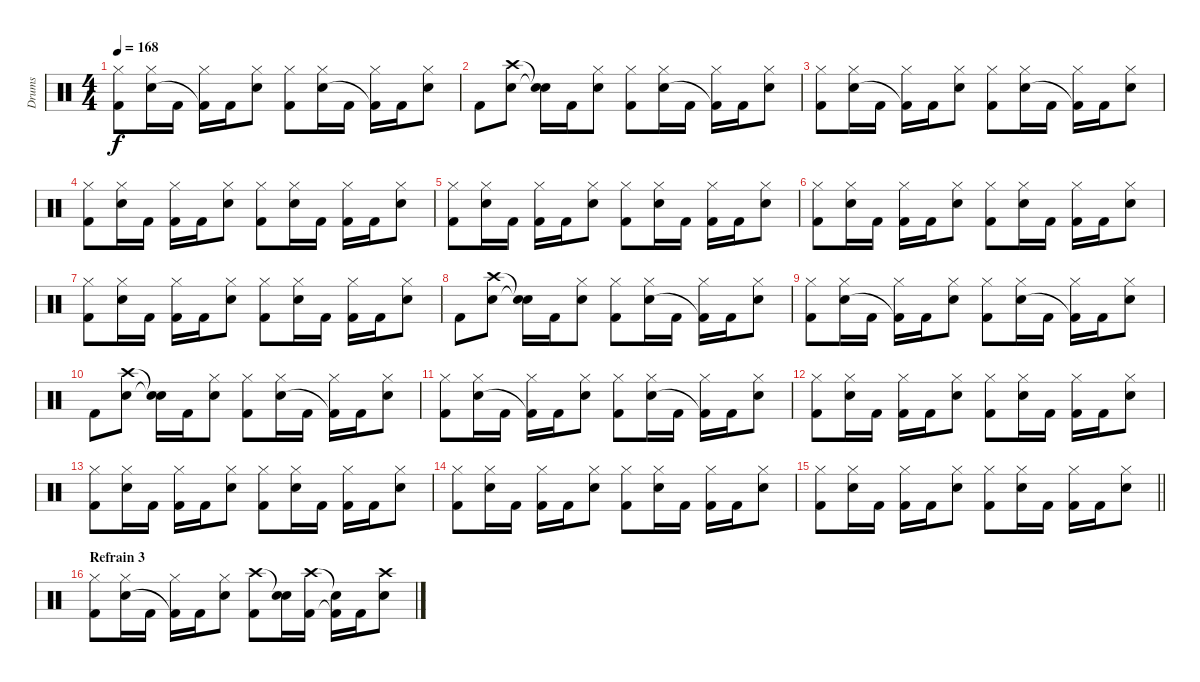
\track ("Drums" "Drums") {instrument percussion}
\staff {score}
\articulation defaults
\ts (4 4)
\tempo 168
\clef neutral
\ks c
("Hi-Hat (closed)" "Kick (hit) 2").8{dy f} ("Hi-Hat (closed)" "Electric Snare (hit)").16 "Kick (hit) 2".16 ("Hi-Hat (closed)" "Kick (hit) 2"{t}).16 "Kick (hit) 2".16 ("Hi-Hat (closed)" "Electric Snare (hit)").8 ("Hi-Hat (closed)" "Kick (hit) 2").8 ("Hi-Hat (closed)" "Electric Snare (hit)").16 "Kick (hit) 2".16 ("Hi-Hat (closed)" "Kick (hit) 2"{t}).16 "Kick (hit) 2".16 ("Hi-Hat (closed)" "Electric Snare (hit)").8 |
"Kick (hit) 2".8 ("Crash high (hit)" "Electric Snare (hit)").8 ("Snare (hit)"{t} "Snare (hit)"{t}).16 "Kick (hit) 2".16 ("Hi-Hat (closed)" "Electric Snare (hit)").8 ("Hi-Hat (closed)" "Kick (hit) 2").8 ("Hi-Hat (closed)" "Electric Snare (hit)").16 "Kick (hit) 2".16 ("Hi-Hat (closed)" "Kick (hit) 2"{t}).16 "Kick (hit) 2".16 ("Hi-Hat (closed)" "Electric Snare (hit)").8 |
("Hi-Hat (closed)" "Kick (hit) 2").8 ("Hi-Hat (closed)" "Electric Snare (hit)").16 "Kick (hit) 2".16 ("Hi-Hat (closed)" "Kick (hit) 2"{t}).16 "Kick (hit) 2".16 ("Hi-Hat (closed)" "Electric Snare (hit)").8 ("Hi-Hat (closed)" "Kick (hit) 2").8 ("Hi-Hat (closed)" "Electric Snare (hit)").16 "Kick (hit) 2".16 ("Hi-Hat (closed)" "Kick (hit) 2"{t}).16 "Kick (hit) 2".16 ("Hi-Hat (closed)" "Electric Snare (hit)").8 |
("Hi-Hat (closed)" "Kick (hit) 2").8 ("Hi-Hat (closed)" "Electric Snare (hit)").16 "Kick (hit) 2".16 ("Hi-Hat (closed)" "Kick (hit) 2").16 "Kick (hit) 2".16 ("Hi-Hat (closed)" "Electric Snare (hit)").8 ("Hi-Hat (closed)" "Kick (hit) 2").8 ("Hi-Hat (closed)" "Electric Snare (hit)").16 "Kick (hit) 2".16 ("Hi-Hat (closed)" "Kick (hit) 2").16 "Kick (hit) 2".16 ("Hi-Hat (closed)" "Electric Snare (hit)").8 |
("Hi-Hat (closed)" "Kick (hit) 2").8 ("Hi-Hat (closed)" "Electric Snare (hit)").16 "Kick (hit) 2".16 ("Hi-Hat (closed)" "Kick (hit) 2").16 "Kick (hit) 2".16 ("Hi-Hat (closed)" "Electric Snare (hit)").8 ("Hi-Hat (closed)" "Kick (hit) 2").8 ("Hi-Hat (closed)" "Electric Snare (hit)").16 "Kick (hit) 2".16 ("Hi-Hat (closed)" "Kick (hit) 2").16 "Kick (hit) 2".16 ("Hi-Hat (closed)" "Electric Snare (hit)").8 |
("Hi-Hat (closed)" "Kick (hit) 2").8 ("Hi-Hat (closed)" "Electric Snare (hit)").16 "Kick (hit) 2".16 ("Hi-Hat (closed)" "Kick (hit) 2").16 "Kick (hit) 2".16 ("Hi-Hat (closed)" "Electric Snare (hit)").8 ("Hi-Hat (closed)" "Kick (hit) 2").8 ("Hi-Hat (closed)" "Electric Snare (hit)").16 "Kick (hit) 2".16 ("Hi-Hat (closed)" "Kick (hit) 2").16 "Kick (hit) 2".16 ("Hi-Hat (closed)" "Electric Snare (hit)").8 |
("Hi-Hat (closed)" "Kick (hit) 2").8 ("Hi-Hat (closed)" "Electric Snare (hit)").16 "Kick (hit) 2".16 ("Hi-Hat (closed)" "Kick (hit) 2").16 "Kick (hit) 2".16 ("Hi-Hat (closed)" "Electric Snare (hit)").8 ("Hi-Hat (closed)" "Kick (hit) 2").8 ("Hi-Hat (closed)" "Electric Snare (hit)").16 "Kick (hit) 2".16 ("Hi-Hat (closed)" "Kick (hit) 2").16 "Kick (hit) 2".16 ("Hi-Hat (closed)" "Electric Snare (hit)").8 |
"Kick (hit) 2".8 ("Crash high (hit)" "Electric Snare (hit)").8 ("Snare (hit)"{t} "Snare (hit)"{t}).16 "Kick (hit) 2".16 ("Hi-Hat (closed)" "Electric Snare (hit)").8 ("Hi-Hat (closed)" "Kick (hit) 2").8 ("Hi-Hat (closed)" "Electric Snare (hit)").16 "Kick (hit) 2".16 ("Hi-Hat (closed)" "Kick (hit) 2"{t}).16 "Kick (hit) 2".16 ("Hi-Hat (closed)" "Electric Snare (hit)").8 |
("Hi-Hat (closed)" "Kick (hit) 2").8 ("Hi-Hat (closed)" "Electric Snare (hit)").16 "Kick (hit) 2".16 ("Hi-Hat (closed)" "Kick (hit) 2"{t}).16 "Kick (hit) 2".16 ("Hi-Hat (closed)" "Electric Snare (hit)").8 ("Hi-Hat (closed)" "Kick (hit) 2").8 ("Hi-Hat (closed)" "Electric Snare (hit)").16 "Kick (hit) 2".16 ("Hi-Hat (closed)" "Kick (hit) 2"{t}).16 "Kick (hit) 2".16 ("Hi-Hat (closed)" "Electric Snare (hit)").8 |
"Kick (hit) 2".8 ("Crash high (hit)" "Electric Snare (hit)").8 ("Snare (hit)"{t} "Snare (hit)"{t}).16 "Kick (hit) 2".16 ("Hi-Hat (closed)" "Electric Snare (hit)").8 ("Hi-Hat (closed)" "Kick (hit) 2").8 ("Hi-Hat (closed)" "Electric Snare (hit)").16 "Kick (hit) 2".16 ("Hi-Hat (closed)" "Kick (hit) 2"{t}).16 "Kick (hit) 2".16 ("Hi-Hat (closed)" "Electric Snare (hit)").8 |
("Hi-Hat (closed)" "Kick (hit) 2").8 ("Hi-Hat (closed)" "Electric Snare (hit)").16 "Kick (hit) 2".16 ("Hi-Hat (closed)" "Kick (hit) 2"{t}).16 "Kick (hit) 2".16 ("Hi-Hat (closed)" "Electric Snare (hit)").8 ("Hi-Hat (closed)" "Kick (hit) 2").8 ("Hi-Hat (closed)" "Electric Snare (hit)").16 "Kick (hit) 2".16 ("Hi-Hat (closed)" "Kick (hit) 2"{t}).16 "Kick (hit) 2".16 ("Hi-Hat (closed)" "Electric Snare (hit)").8 |
("Hi-Hat (closed)" "Kick (hit) 2").8 ("Hi-Hat (closed)" "Electric Snare (hit)").16 "Kick (hit) 2".16 ("Hi-Hat (closed)" "Kick (hit) 2").16 "Kick (hit) 2".16 ("Hi-Hat (closed)" "Electric Snare (hit)").8 ("Hi-Hat (closed)" "Kick (hit) 2").8 ("Hi-Hat (closed)" "Electric Snare (hit)").16 "Kick (hit) 2".16 ("Hi-Hat (closed)" "Kick (hit) 2").16 "Kick (hit) 2".16 ("Hi-Hat (closed)" "Electric Snare (hit)").8 |
("Hi-Hat (closed)" "Kick (hit) 2").8 ("Hi-Hat (closed)" "Electric Snare (hit)").16 "Kick (hit) 2".16 ("Hi-Hat (closed)" "Kick (hit) 2").16 "Kick (hit) 2".16 ("Hi-Hat (closed)" "Electric Snare (hit)").8 ("Hi-Hat (closed)" "Kick (hit) 2").8 ("Hi-Hat (closed)" "Electric Snare (hit)").16 "Kick (hit) 2".16 ("Hi-Hat (closed)" "Kick (hit) 2").16 "Kick (hit) 2".16 ("Hi-Hat (closed)" "Electric Snare (hit)").8 |
("Hi-Hat (closed)" "Kick (hit) 2").8 ("Hi-Hat (closed)" "Electric Snare (hit)").16 "Kick (hit) 2".16 ("Hi-Hat (closed)" "Kick (hit) 2").16 "Kick (hit) 2".16 ("Hi-Hat (closed)" "Electric Snare (hit)").8 ("Hi-Hat (closed)" "Kick (hit) 2").8 ("Hi-Hat (closed)" "Electric Snare (hit)").16 "Kick (hit) 2".16 ("Hi-Hat (closed)" "Kick (hit) 2").16 "Kick (hit) 2".16 ("Hi-Hat (closed)" "Electric Snare (hit)").8 |
\barLineRight lightlight
("Hi-Hat (closed)" "Kick (hit) 2").8 ("Hi-Hat (closed)" "Electric Snare (hit)").16 "Kick (hit) 2".16 ("Hi-Hat (closed)" "Kick (hit) 2").16 "Kick (hit) 2".16 ("Hi-Hat (closed)" "Electric Snare (hit)").8 ("Hi-Hat (closed)" "Kick (hit) 2").8 ("Hi-Hat (closed)" "Electric Snare (hit)").16 "Kick (hit) 2".16 ("Hi-Hat (closed)" "Kick (hit) 2").16 "Kick (hit) 2".16 ("Hi-Hat (closed)" "Electric Snare (hit)").8 |
\section ("" "Refrain 3")
("Hi-Hat (closed)" "Kick (hit) 2").8 ("Hi-Hat (closed)" "Electric Snare (hit)").16 "Kick (hit) 2".16 ("Hi-Hat (closed)" "Kick (hit) 2"{t}).16 "Kick (hit) 2".16 ("Hi-Hat (closed)" "Electric Snare (hit)").8 ("Crash high (hit)" "Kick (hit) 2").8 ("Snare (hit)"{t} "Electric Snare (hit)").16 ("Crash high (hit)" "Kick (hit) 2").16 ("Snare (hit)"{t} "Kick (hit) 2"{t}).16 "Kick (hit) 2".16 ("Crash high (hit)" "Electric Snare (hit)").8
